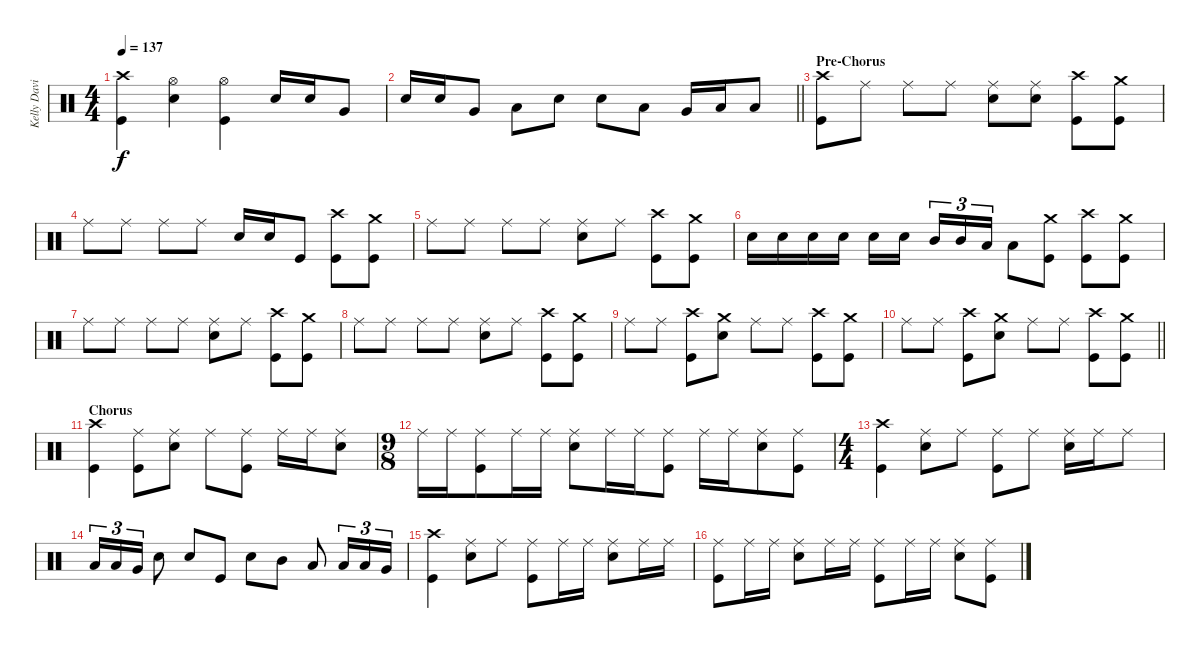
\track ("Kelly David Smith" "Kelly Davi") {instrument percussion}
\staff {score}
\articulation defaults
\ts (4 4)
\tempo 137
\clef neutral
\ks c
("Crash high (hit)" "Kick (hit)").4{dy f} ("Hi-Hat (open)" "Electric Snare (hit)").4 ("Hi-Hat (open)" "Kick (hit)").4 "Electric Snare (hit)".16 "Electric Snare (hit)".16 "Very Low Tom (hit)".8 |
\barLineRight lightlight "Electric Snare (hit)".16 "Electric Snare (hit)".16 "Very Low Tom (hit)".8 "Low Floor Tom (hit)".8 "Electric Snare (hit)".8 "Electric Snare (hit)".8 "Low Tom (hit)".8 "Very Low Tom (hit)".16 "Low Floor Tom (hit)".16 "Low Floor Tom (hit)".8
|
\section ("" "Pre-Chorus")
("Crash high (hit)" "Kick (hit)").8 "Ride (middle)".8 "Ride (middle)".8 "Ride (middle)".8 ("Ride (middle)" "Electric Snare (hit)").8 ("Ride (middle)" "Electric Snare (hit)").8 ("Crash high (hit)" "Kick (hit)").8 ("Crash medium (hit)" "Kick (hit)").8 |
"Ride (middle)".8 "Ride (middle)".8 "Ride (middle)".8 "Ride (middle)".8 "Electric Snare (hit)".16 "Electric Snare (hit)".16 "Kick (hit)".8 ("Crash high (hit)" "Kick (hit)").8 ("Crash medium (hit)" "Kick (hit)").8 |
"Ride (middle)".8 "Ride (middle)".8 "Ride (middle)".8 "Ride (middle)".8 ("Ride (middle)" "Electric Snare (hit)").8 "Ride (middle)".8 ("Crash high (hit)" "Kick (hit)").8 ("Crash medium (hit)" "Kick (hit)").8 |
"Electric Snare (hit)".16 "Electric Snare (hit)".16 "Electric Snare (hit)".16 "Electric Snare (hit)".16 "Electric Snare (hit)".16 "Electric Snare (hit)".16{beam splitsecondary} "Mid Tom (hit)".16{tu (3 2)} "Mid Tom (hit)".16{tu (3 2)} "Low Tom (hit)".16{tu (3 2)} "Low Tom (hit)".8 ("Crash medium (hit)" "Kick (hit)").8 ("Crash high (hit)" "Kick (hit)").8 ("Crash medium (hit)" "Kick (hit)").8 |
"Ride (middle)".8 "Ride (middle)".8 "Ride (middle)".8 "Ride (middle)".8 ("Ride (middle)" "Electric Snare (hit)").8 "Ride (middle)".8 ("Crash high (hit)" "Kick (hit)").8 ("Crash medium (hit)" "Kick (hit)").8 |
"Ride (middle)".8 "Ride (middle)".8 "Ride (middle)".8 "Ride (middle)".8 ("Ride (middle)" "Electric Snare (hit)").8 "Ride (middle)".8 ("Crash high (hit)" "Kick (hit)").8 ("Crash medium (hit)" "Kick (hit)").8 |
"Ride (middle)".8 "Ride (middle)".8 ("Crash high (hit)" "Kick (hit)").8 ("Crash medium (hit)" "Electric Snare (hit)").8 "Ride (middle)".8 "Ride (middle)".8 ("Crash high (hit)" "Kick (hit)").8 ("Crash medium (hit)" "Kick (hit)").8 |
\barLineRight lightlight "Ride (middle)".8 "Ride (middle)".8
("Crash high (hit)" "Kick (hit)").8 ("Crash medium (hit)" "Electric Snare (hit)").8 "Ride (middle)".8 "Ride (middle)".8 ("Crash high (hit)" "Kick (hit)").8 ("Crash medium (hit)" "Kick (hit)").8 |
\section ("" "Chorus")
("Crash high (hit)" "Kick (hit)").4 ("Ride (middle)" "Kick (hit)").8 ("Ride (middle)" "Electric Snare (hit)").8 "Ride (middle)".8 ("Ride (middle)" "Kick (hit)").8 "Ride (middle)".16 "Ride (middle)".16 ("Ride (middle)" "Electric Snare (hit)").8 |
\ts (9 8)
"Ride (middle)".16 "Ride (middle)".16 ("Ride (middle)" "Kick (hit)").8 "Ride (middle)".16 "Ride (middle)".16 ("Ride (middle)" "Electric Snare (hit)").8 "Ride (middle)".16 "Ride (middle)".16 ("Ride (middle)" "Kick (hit)").8 "Ride (middle)".16 "Ride (middle)".16 ("Ride (middle)" "Electric Snare (hit)").8 ("Ride (middle)" "Kick (hit)").8 |
\ts (4 4)
("Crash high (hit)" "Kick (hit)").4 ("Ride (middle)" "Electric Snare (hit)").8 "Ride (middle)".8 ("Ride (middle)" "Kick (hit)").8 "Ride (middle)".8 ("Ride (middle)" "Electric Snare (hit)").16 "Ride (middle)".16 "Ride (middle)".8 |
"Low Tom (hit)".16{tu (3 2)} "Low Tom (hit)".16{tu (3 2)} "Very Low Tom (hit)".16{tu (3 2)} "Electric Snare (hit)".8 "Electric Snare (hit)".8 "Kick (hit)".8 "Electric Snare (hit)".8 "Mid Tom (hit)".8 "Low Tom (hit)".8 "Low Tom (hit)".16{tu (3 2)} "Low Tom (hit)".16{tu (3 2)} "Very Low Tom (hit)".16{tu (3 2)} |
("Crash high (hit)" "Kick (hit)").4 ("Ride (middle)" "Electric Snare (hit)").8 "Ride (middle)".8 ("Ride (middle)" "Kick (hit)").8 "Ride (middle)".16 "Ride (middle)".16 ("Ride (middle)" "Electric Snare (hit)").8 "Ride (middle)".16 "Ride (middle)".16 |
("Ride (middle)" "Kick (hit)").8 "Ride (middle)".16 "Ride (middle)".16 ("Ride (middle)" "Electric Snare (hit)").8 "Ride (middle)".16 "Ride (middle)".16 ("Ride (middle)" "Kick (hit)").8 "Ride (middle)".16 "Ride (middle)".16 ("Ride (middle)" "Electric Snare (hit)").8 ("Ride (middle)" "Kick (hit)").8
